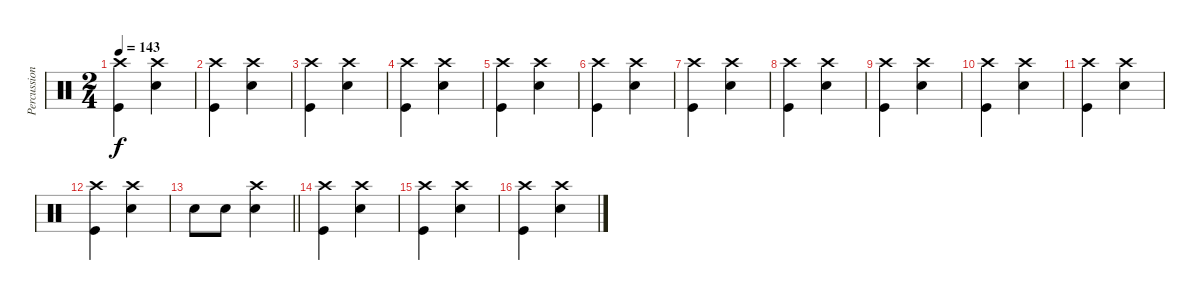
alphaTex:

\track ("Percussion" "Percussion") {instrument percussion}
\staff {score}
\articulation defaults
\ts (2 4)
\tempo 143
\clef neutral
\ks c
("Kick (hit)" "Crash high (hit)").4{dy f} ("Snare (hit) 2"{x} "Crash high (hit)").4 |
("Kick (hit)" "Crash high (hit)").4 ("Snare (hit) 2"{x} "Crash high (hit)").4 |
("Kick (hit)" "Crash high (hit)").4 ("Snare (hit) 2"{x} "Crash high (hit)").4 |
("Kick (hit)" "Crash high (hit)").4 ("Snare (hit) 2"{x} "Crash high (hit)").4 |
("Kick (hit)" "Crash high (hit)").4 ("Snare (hit) 2"{x} "Crash high (hit)").4 |
("Kick (hit)" "Crash high (hit)").4 ("Snare (hit) 2"{x} "Crash high (hit)").4 |
("Kick (hit)" "Crash high (hit)").4 ("Snare (hit) 2"{x} "Crash high (hit)").4 |
("Kick (hit)" "Crash high (hit)").4 ("Snare (hit) 2"{x} "Crash high (hit)").4 |
("Kick (hit)" "Crash high (hit)").4 ("Snare (hit) 2"{x} "Crash high (hit)").4 |
("Kick (hit)" "Crash high (hit)").4 ("Snare (hit) 2"{x} "Crash high (hit)").4 |
("Kick (hit)" "Crash high (hit)").4 ("Snare (hit) 2"{x} "Crash high (hit)").4 |
("Kick (hit)" "Crash high (hit)").4 ("Snare (hit) 2"{x} "Crash high (hit)").4 |
\barLineRight lightlight "Snare (hit) 2".8 "Snare (hit) 2".8
("Snare (hit) 2" "Crash high (hit)").4 |
("Kick (hit)" "Crash high (hit)").4 ("Snare (hit) 2" "Crash high (hit)").4 |
("Kick (hit)" "Crash high (hit)").4 ("Snare (hit) 2" "Crash high (hit)").4 |
("Kick (hit)" "Crash high (hit)").4 ("Snare (hit) 2" "Crash high (hit)").4
